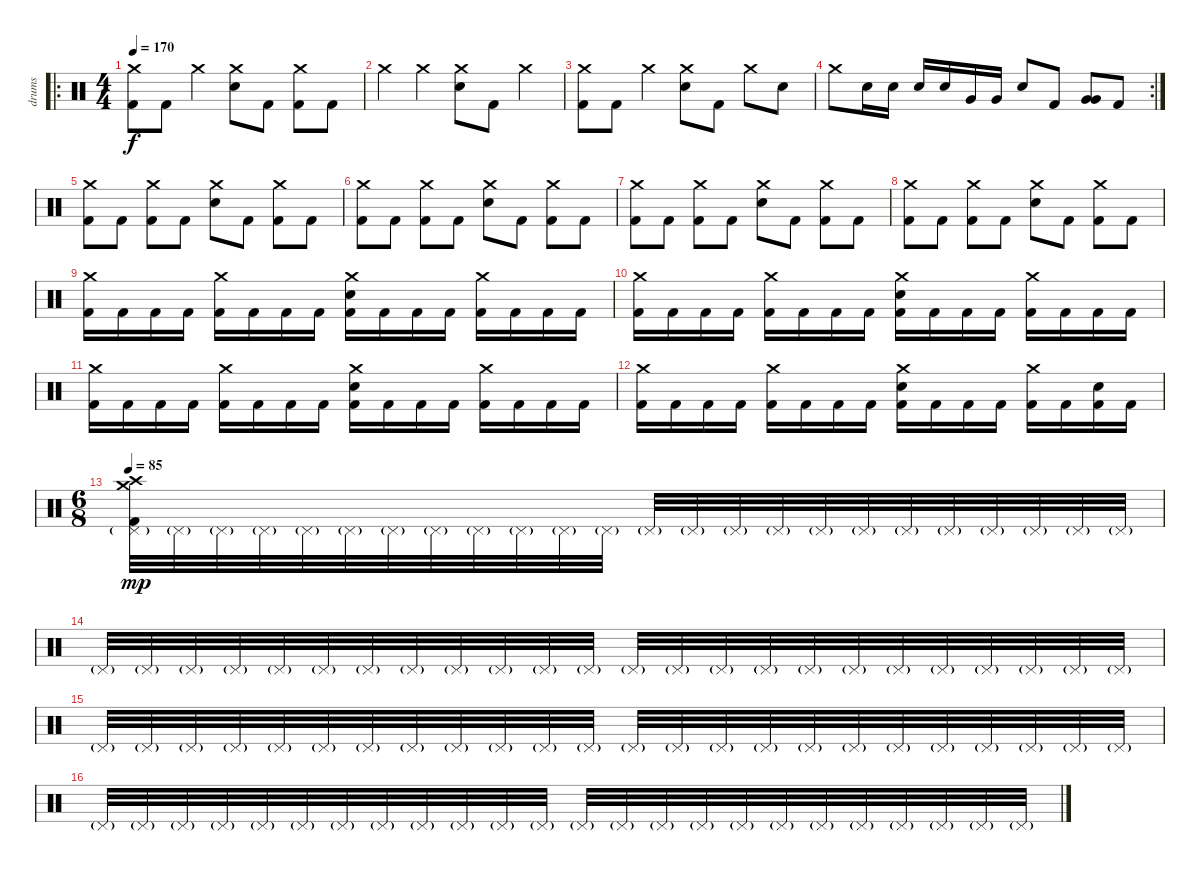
\track ("drums" "drums") {instrument percussion}
\staff {score}
\articulation defaults
\ro
\ts (4 4)
\tempo 170
\clef neutral
\ks c
("Crash medium (hit)" "Kick (hit) 2").8{dy f} "Kick (hit) 2".8 "Crash medium (hit)".4 ("Crash medium (hit)" "Electric Snare (hit)").8 "Kick (hit) 2".8 ("Crash medium (hit)" "Kick (hit) 2").8 "Kick (hit) 2".8 |
"Crash medium (hit)".4 "Crash medium (hit)".4 ("Crash medium (hit)" "Electric Snare (hit)").8 "Kick (hit) 2".8 "Crash medium (hit)".4 |
("Crash medium (hit)" "Kick (hit) 2").8 "Kick (hit) 2".8 "Crash medium (hit)".4 ("Crash medium (hit)" "Electric Snare (hit)").8 "Kick (hit) 2".8 "Crash medium (hit)".8 "Electric Snare (hit)".8 |
\rc 2 "Crash medium (hit)".8 "Electric Snare (hit)".16 "Electric Snare (hit)".16 "Electric Snare (hit)".16 "Electric Snare (hit)".16 "Very Low Tom (hit)".16 "Very Low Tom (hit)".16 "Electric Snare (hit)".8 "Kick (hit) 2".8
("Very Low Tom (hit)" "Very Low Tom (hit)").8 "Kick (hit) 2".8 |
("Crash medium (hit)" "Kick (hit) 2").8 "Kick (hit) 2".8 ("Crash medium (hit)" "Kick (hit) 2").8 "Kick (hit) 2".8 ("Crash medium (hit)" "Electric Snare (hit)").8 "Kick (hit) 2".8 ("Crash medium (hit)" "Kick (hit) 2").8 "Kick (hit) 2".8 |
("Crash medium (hit)" "Kick (hit) 2").8 "Kick (hit) 2".8 ("Crash medium (hit)" "Kick (hit) 2").8 "Kick (hit) 2".8 ("Crash medium (hit)" "Electric Snare (hit)").8 "Kick (hit) 2".8 ("Crash medium (hit)" "Kick (hit) 2").8 "Kick (hit) 2".8 |
("Crash medium (hit)" "Kick (hit) 2").8 "Kick (hit) 2".8 ("Crash medium (hit)" "Kick (hit) 2").8 "Kick (hit) 2".8 ("Crash medium (hit)" "Electric Snare (hit)").8 "Kick (hit) 2".8 ("Crash medium (hit)" "Kick (hit) 2").8 "Kick (hit) 2".8 |
("Crash medium (hit)" "Kick (hit) 2").8 "Kick (hit) 2".8 ("Crash medium (hit)" "Kick (hit) 2").8 "Kick (hit) 2".8 ("Crash medium (hit)" "Electric Snare (hit)").8 "Kick (hit) 2".8 ("Crash medium (hit)" "Kick (hit) 2").8 "Kick (hit) 2".8 |
("Crash medium (hit)" "Kick (hit) 2").16 "Kick (hit) 2".16 "Kick (hit) 2".16 "Kick (hit) 2".16 ("Crash medium (hit)" "Kick (hit) 2").16 "Kick (hit) 2".16 "Kick (hit) 2".16 "Kick (hit) 2".16 ("Crash medium (hit)" "Electric Snare (hit)" "Kick (hit) 2").16 "Kick (hit) 2".16 "Kick (hit) 2".16 "Kick (hit) 2".16 ("Crash medium (hit)" "Kick (hit) 2").16 "Kick (hit) 2".16 "Kick (hit) 2".16 "Kick (hit) 2".16 |
("Crash medium (hit)" "Kick (hit) 2").16 "Kick (hit) 2".16 "Kick (hit) 2".16 "Kick (hit) 2".16 ("Crash medium (hit)" "Kick (hit) 2").16 "Kick (hit) 2".16 "Kick (hit) 2".16 "Kick (hit) 2".16 ("Crash medium (hit)" "Electric Snare (hit)" "Kick (hit) 2").16 "Kick (hit) 2".16 "Kick (hit) 2".16 "Kick (hit) 2".16 ("Crash medium (hit)" "Kick (hit) 2").16 "Kick (hit) 2".16 "Kick (hit) 2".16 "Kick (hit) 2".16 |
("Crash medium (hit)" "Kick (hit) 2").16 "Kick (hit) 2".16 "Kick (hit) 2".16 "Kick (hit) 2".16 ("Crash medium (hit)" "Kick (hit) 2").16 "Kick (hit) 2".16 "Kick (hit) 2".16 "Kick (hit) 2".16 ("Crash medium (hit)" "Electric Snare (hit)" "Kick (hit) 2").16 "Kick (hit) 2".16 "Kick (hit) 2".16 "Kick (hit) 2".16 ("Crash medium (hit)" "Kick (hit) 2").16 "Kick (hit) 2".16 "Kick (hit) 2".16 "Kick (hit) 2".16 |
("Crash medium (hit)" "Kick (hit) 2").16 "Kick (hit) 2".16 "Kick (hit) 2".16 "Kick (hit) 2".16 ("Crash medium (hit)" "Kick (hit) 2").16 "Kick (hit) 2".16 "Kick (hit) 2".16 "Kick (hit) 2".16 ("Crash medium (hit)" "Electric Snare (hit)" "Kick (hit) 2").16 "Kick (hit) 2".16 "Kick (hit) 2".16 "Kick (hit) 2".16 ("Crash medium (hit)" "Kick (hit) 2").16 "Kick (hit) 2".16 ("Electric Snare (hit)" "Kick (hit) 2").16 "Kick (hit) 2".16 |
\ts (6 8)
\tempo 85
("Crash medium (hit)" "Crash high (hit)" "Pedal Hi-Hat (hit)"{g} "Kick (hit) 2").32{dy mp balance 16} "Pedal Hi-Hat (hit)"{g}.32 "Pedal Hi-Hat (hit)"{g}.32 "Pedal Hi-Hat (hit)"{g}.32 "Pedal Hi-Hat (hit)"{g}.32 "Pedal Hi-Hat (hit)"{g}.32 "Pedal Hi-Hat (hit)"{g}.32 "Pedal Hi-Hat (hit)"{g}.32 "Pedal Hi-Hat (hit)"{g}.32 "Pedal Hi-Hat (hit)"{g}.32 "Pedal Hi-Hat (hit)"{g}.32 "Pedal Hi-Hat (hit)"{g}.32 "Pedal Hi-Hat (hit)"{g}.32{balance 0} "Pedal Hi-Hat (hit)"{g}.32 "Pedal Hi-Hat (hit)"{g}.32 "Pedal Hi-Hat (hit)"{g}.32 "Pedal Hi-Hat (hit)"{g}.32 "Pedal Hi-Hat (hit)"{g}.32 "Pedal Hi-Hat (hit)"{g}.32 "Pedal Hi-Hat (hit)"{g}.32 "Pedal Hi-Hat (hit)"{g}.32 "Pedal Hi-Hat (hit)"{g}.32 "Pedal Hi-Hat (hit)"{g}.32 "Pedal Hi-Hat (hit)"{g}.32 |
"Pedal Hi-Hat (hit)"{g}.32{balance 16} "Pedal Hi-Hat (hit)"{g}.32 "Pedal Hi-Hat (hit)"{g}.32 "Pedal Hi-Hat (hit)"{g}.32 "Pedal Hi-Hat (hit)"{g}.32 "Pedal Hi-Hat (hit)"{g}.32 "Pedal Hi-Hat (hit)"{g}.32 "Pedal Hi-Hat (hit)"{g}.32 "Pedal Hi-Hat (hit)"{g}.32 "Pedal Hi-Hat (hit)"{g}.32 "Pedal Hi-Hat (hit)"{g}.32 "Pedal Hi-Hat (hit)"{g}.32 "Pedal Hi-Hat (hit)"{g}.32{balance 0} "Pedal Hi-Hat (hit)"{g}.32 "Pedal Hi-Hat (hit)"{g}.32 "Pedal Hi-Hat (hit)"{g}.32 "Pedal Hi-Hat (hit)"{g}.32 "Pedal Hi-Hat (hit)"{g}.32 "Pedal Hi-Hat (hit)"{g}.32 "Pedal Hi-Hat (hit)"{g}.32 "Pedal Hi-Hat (hit)"{g}.32 "Pedal Hi-Hat (hit)"{g}.32 "Pedal Hi-Hat (hit)"{g}.32 "Pedal Hi-Hat (hit)"{g}.32 |
"Pedal Hi-Hat (hit)"{g}.32{balance 16} "Pedal Hi-Hat (hit)"{g}.32 "Pedal Hi-Hat (hit)"{g}.32 "Pedal Hi-Hat (hit)"{g}.32 "Pedal Hi-Hat (hit)"{g}.32 "Pedal Hi-Hat (hit)"{g}.32 "Pedal Hi-Hat (hit)"{g}.32 "Pedal Hi-Hat (hit)"{g}.32 "Pedal Hi-Hat (hit)"{g}.32 "Pedal Hi-Hat (hit)"{g}.32 "Pedal Hi-Hat (hit)"{g}.32 "Pedal Hi-Hat (hit)"{g}.32 "Pedal Hi-Hat (hit)"{g}.32{balance 0} "Pedal Hi-Hat (hit)"{g}.32 "Pedal Hi-Hat (hit)"{g}.32 "Pedal Hi-Hat (hit)"{g}.32 "Pedal Hi-Hat (hit)"{g}.32 "Pedal Hi-Hat (hit)"{g}.32 "Pedal Hi-Hat (hit)"{g}.32 "Pedal Hi-Hat (hit)"{g}.32 "Pedal Hi-Hat (hit)"{g}.32 "Pedal Hi-Hat (hit)"{g}.32 "Pedal Hi-Hat (hit)"{g}.32 "Pedal Hi-Hat (hit)"{g}.32 |
"Pedal Hi-Hat (hit)"{g}.32{balance 16} "Pedal Hi-Hat (hit)"{g}.32 "Pedal Hi-Hat (hit)"{g}.32 "Pedal Hi-Hat (hit)"{g}.32 "Pedal Hi-Hat (hit)"{g}.32 "Pedal Hi-Hat (hit)"{g}.32 "Pedal Hi-Hat (hit)"{g}.32 "Pedal Hi-Hat (hit)"{g}.32 "Pedal Hi-Hat (hit)"{g}.32 "Pedal Hi-Hat (hit)"{g}.32 "Pedal Hi-Hat (hit)"{g}.32 "Pedal Hi-Hat (hit)"{g}.32 "Pedal Hi-Hat (hit)"{g}.32{balance 0} "Pedal Hi-Hat (hit)"{g}.32 "Pedal Hi-Hat (hit)"{g}.32 "Pedal Hi-Hat (hit)"{g}.32 "Pedal Hi-Hat (hit)"{g}.32 "Pedal Hi-Hat (hit)"{g}.32 "Pedal Hi-Hat (hit)"{g}.32 "Pedal Hi-Hat (hit)"{g}.32 "Pedal Hi-Hat (hit)"{g}.32 "Pedal Hi-Hat (hit)"{g}.32 "Pedal Hi-Hat (hit)"{g}.32 "Pedal Hi-Hat (hit)"{g}.32
